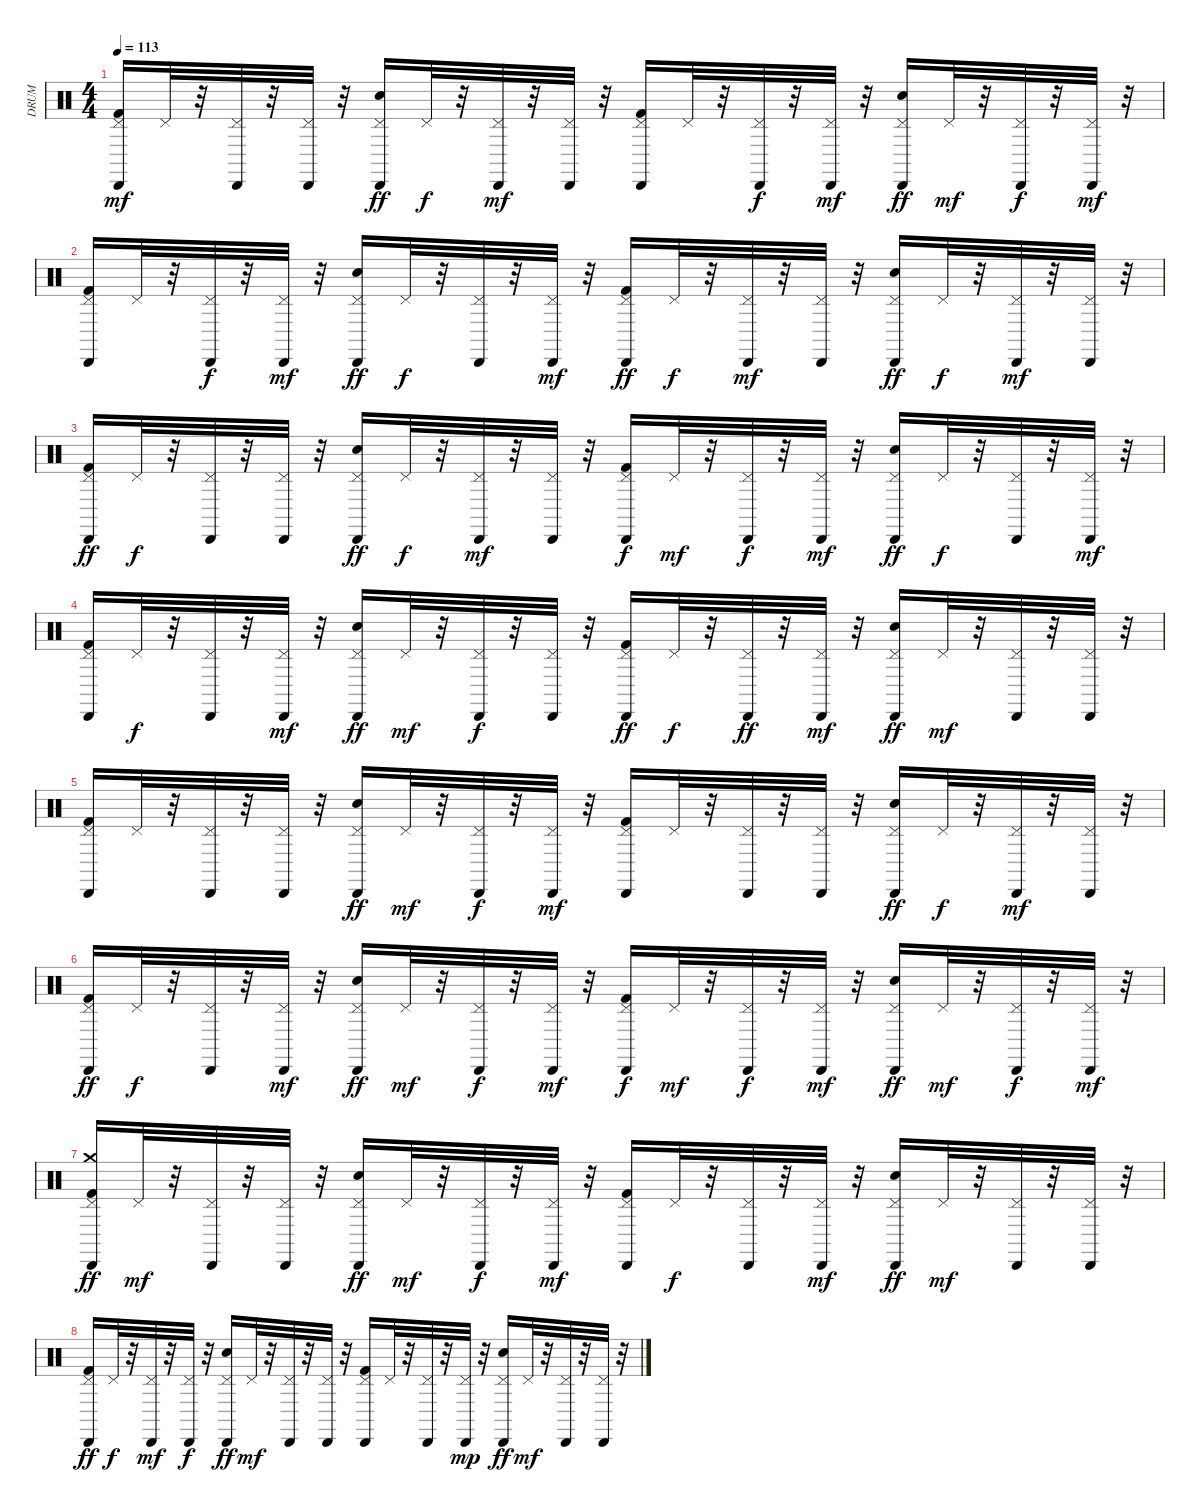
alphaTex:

\track ("DRUM" "DRUM") {instrument percussion}
\staff {score}
\articulation defaults
\ts (4 4)
\tempo 113
\clef neutral
\ks c
("Cabasa (hit)" "Pedal Hi-Hat (hit)" "Kick (hit) 2").16{dy mf} "Pedal Hi-Hat (hit)".32 r.32 ("Cabasa (hit)" "Pedal Hi-Hat (hit)").32 r.32 ("Cabasa (hit)" "Pedal Hi-Hat (hit)").32 r.32 ("Cabasa (hit)" "Pedal Hi-Hat (hit)" "Snare (hit) 2").16{dy ff} "Pedal Hi-Hat (hit)".32{dy f} r.32 ("Cabasa (hit)" "Pedal Hi-Hat (hit)").32{dy mf} r.32 ("Cabasa (hit)" "Pedal Hi-Hat (hit)").32 r.32 ("Cabasa (hit)" "Pedal Hi-Hat (hit)" "Kick (hit) 2").16 "Pedal Hi-Hat (hit)".32 r.32 ("Cabasa (hit)" "Pedal Hi-Hat (hit)").32{dy f} r.32 ("Cabasa (hit)" "Pedal Hi-Hat (hit)").32{dy mf} r.32 ("Cabasa (hit)" "Pedal Hi-Hat (hit)" "Snare (hit) 2").16{dy ff} "Pedal Hi-Hat (hit)".32{dy mf} r.32 ("Cabasa (hit)" "Pedal Hi-Hat (hit)").32{dy f} r.32 ("Cabasa (hit)" "Pedal Hi-Hat (hit)").32{dy mf} r.32 |
("Cabasa (hit)" "Pedal Hi-Hat (hit)" "Kick (hit) 2").16 "Pedal Hi-Hat (hit)".32 r.32 ("Cabasa (hit)" "Pedal Hi-Hat (hit)").32{dy f} r.32 ("Cabasa (hit)" "Pedal Hi-Hat (hit)").32{dy mf} r.32 ("Cabasa (hit)" "Pedal Hi-Hat (hit)" "Snare (hit) 2").16{dy ff} "Pedal Hi-Hat (hit)".32{dy f} r.32 ("Cabasa (hit)" "Pedal Hi-Hat (hit)").32 r.32 ("Cabasa (hit)" "Pedal Hi-Hat (hit)").32{dy mf} r.32 ("Cabasa (hit)" "Pedal Hi-Hat (hit)" "Kick (hit) 2").16{dy ff} "Pedal Hi-Hat (hit)".32{dy f} r.32 ("Cabasa (hit)" "Pedal Hi-Hat (hit)").32{dy mf} r.32 ("Cabasa (hit)" "Pedal Hi-Hat (hit)").32 r.32 ("Cabasa (hit)" "Pedal Hi-Hat (hit)" "Snare (hit) 2").16{dy ff} "Pedal Hi-Hat (hit)".32{dy f} r.32 ("Cabasa (hit)" "Pedal Hi-Hat (hit)").32{dy mf} r.32 ("Cabasa (hit)" "Pedal Hi-Hat (hit)").32 r.32 |
("Cabasa (hit)" "Pedal Hi-Hat (hit)" "Kick (hit) 2").16{dy ff} "Pedal Hi-Hat (hit)".32{dy f} r.32 ("Cabasa (hit)" "Pedal Hi-Hat (hit)").32 r.32 ("Cabasa (hit)" "Pedal Hi-Hat (hit)").32 r.32 ("Cabasa (hit)" "Pedal Hi-Hat (hit)" "Snare (hit) 2").16{dy ff} "Pedal Hi-Hat (hit)".32{dy f} r.32 ("Cabasa (hit)" "Pedal Hi-Hat (hit)").32{dy mf} r.32 ("Cabasa (hit)" "Pedal Hi-Hat (hit)").32 r.32 ("Cabasa (hit)" "Pedal Hi-Hat (hit)" "Kick (hit) 2").16{dy f} "Pedal Hi-Hat (hit)".32{dy mf} r.32 ("Cabasa (hit)" "Pedal Hi-Hat (hit)").32{dy f} r.32 ("Cabasa (hit)" "Pedal Hi-Hat (hit)").32{dy mf} r.32 ("Cabasa (hit)" "Pedal Hi-Hat (hit)" "Snare (hit) 2").16{dy ff} "Pedal Hi-Hat (hit)".32{dy f} r.32 ("Cabasa (hit)" "Pedal Hi-Hat (hit)").32 r.32 ("Cabasa (hit)" "Pedal Hi-Hat (hit)").32{dy mf} r.32 |
("Cabasa (hit)" "Pedal Hi-Hat (hit)" "Kick (hit) 2").16 "Pedal Hi-Hat (hit)".32{dy f} r.32 ("Cabasa (hit)" "Pedal Hi-Hat (hit)").32 r.32 ("Cabasa (hit)" "Pedal Hi-Hat (hit)").32{dy mf} r.32 ("Cabasa (hit)" "Pedal Hi-Hat (hit)" "Snare (hit) 2").16{dy ff} "Pedal Hi-Hat (hit)".32{dy mf} r.32 ("Cabasa (hit)" "Pedal Hi-Hat (hit)").32{dy f} r.32 ("Cabasa (hit)" "Pedal Hi-Hat (hit)").32 r.32 ("Cabasa (hit)" "Pedal Hi-Hat (hit)" "Kick (hit) 2").16{dy ff} "Pedal Hi-Hat (hit)".32{dy f} r.32 ("Cabasa (hit)" "Pedal Hi-Hat (hit)").32{dy ff} r.32 ("Cabasa (hit)" "Pedal Hi-Hat (hit)").32{dy mf} r.32 ("Cabasa (hit)" "Pedal Hi-Hat (hit)" "Snare (hit) 2").16{dy ff} "Pedal Hi-Hat (hit)".32{dy mf} r.32 ("Cabasa (hit)" "Pedal Hi-Hat (hit)").32 r.32 ("Cabasa (hit)" "Pedal Hi-Hat (hit)").32 r.32 |
("Cabasa (hit)" "Pedal Hi-Hat (hit)" "Kick (hit) 2").16 "Pedal Hi-Hat (hit)".32 r.32 ("Cabasa (hit)" "Pedal Hi-Hat (hit)").32 r.32 ("Cabasa (hit)" "Pedal Hi-Hat (hit)").32 r.32 ("Cabasa (hit)" "Pedal Hi-Hat (hit)" "Snare (hit) 2").16{dy ff} "Pedal Hi-Hat (hit)".32{dy mf} r.32 ("Cabasa (hit)" "Pedal Hi-Hat (hit)").32{dy f} r.32 ("Cabasa (hit)" "Pedal Hi-Hat (hit)").32{dy mf} r.32 ("Cabasa (hit)" "Pedal Hi-Hat (hit)" "Kick (hit) 2").16 "Pedal Hi-Hat (hit)".32 r.32 ("Cabasa (hit)" "Pedal Hi-Hat (hit)").32 r.32 ("Cabasa (hit)" "Pedal Hi-Hat (hit)").32 r.32 ("Cabasa (hit)" "Pedal Hi-Hat (hit)" "Snare (hit) 2").16{dy ff} "Pedal Hi-Hat (hit)".32{dy f} r.32 ("Cabasa (hit)" "Pedal Hi-Hat (hit)").32{dy mf} r.32 ("Cabasa (hit)" "Pedal Hi-Hat (hit)").32 r.32 |
("Cabasa (hit)" "Pedal Hi-Hat (hit)" "Kick (hit) 2").16{dy ff} "Pedal Hi-Hat (hit)".32{dy f} r.32 ("Cabasa (hit)" "Pedal Hi-Hat (hit)").32 r.32 ("Cabasa (hit)" "Pedal Hi-Hat (hit)").32{dy mf} r.32 ("Cabasa (hit)" "Pedal Hi-Hat (hit)" "Snare (hit) 2").16{dy ff} "Pedal Hi-Hat (hit)".32{dy mf} r.32 ("Cabasa (hit)" "Pedal Hi-Hat (hit)").32{dy f} r.32 ("Cabasa (hit)" "Pedal Hi-Hat (hit)").32{dy mf} r.32 ("Cabasa (hit)" "Pedal Hi-Hat (hit)" "Kick (hit) 2").16{dy f} "Pedal Hi-Hat (hit)".32{dy mf} r.32 ("Cabasa (hit)" "Pedal Hi-Hat (hit)").32{dy f} r.32 ("Cabasa (hit)" "Pedal Hi-Hat (hit)").32{dy mf} r.32 ("Cabasa (hit)" "Pedal Hi-Hat (hit)" "Snare (hit) 2").16{dy ff} "Pedal Hi-Hat (hit)".32{dy mf} r.32 ("Cabasa (hit)" "Pedal Hi-Hat (hit)").32{dy f} r.32 ("Cabasa (hit)" "Pedal Hi-Hat (hit)").32{dy mf} r.32 |
("Cabasa (hit)" "Crash medium (hit)" "Pedal Hi-Hat (hit)" "Kick (hit) 2").16{dy ff} "Pedal Hi-Hat (hit)".32{dy mf} r.32 ("Cabasa (hit)" "Pedal Hi-Hat (hit)").32 r.32 ("Cabasa (hit)" "Pedal Hi-Hat (hit)").32 r.32 ("Cabasa (hit)" "Pedal Hi-Hat (hit)" "Snare (hit) 2").16{dy ff} "Pedal Hi-Hat (hit)".32{dy mf} r.32 ("Cabasa (hit)" "Pedal Hi-Hat (hit)").32{dy f} r.32 ("Cabasa (hit)" "Pedal Hi-Hat (hit)").32{dy mf} r.32 ("Cabasa (hit)" "Pedal Hi-Hat (hit)" "Kick (hit) 2").16 "Pedal Hi-Hat (hit)".32{dy f} r.32 ("Cabasa (hit)" "Pedal Hi-Hat (hit)").32 r.32 ("Cabasa (hit)" "Pedal Hi-Hat (hit)").32{dy mf} r.32 ("Cabasa (hit)" "Pedal Hi-Hat (hit)" "Snare (hit) 2").16{dy ff} "Pedal Hi-Hat (hit)".32{dy mf} r.32 ("Cabasa (hit)" "Pedal Hi-Hat (hit)").32 r.32 ("Cabasa (hit)" "Pedal Hi-Hat (hit)").32 r.32 |
("Cabasa (hit)" "Pedal Hi-Hat (hit)" "Kick (hit) 2").16{dy ff} "Pedal Hi-Hat (hit)".32{dy f} r.32 ("Cabasa (hit)" "Pedal Hi-Hat (hit)").32{dy mf} r.32 ("Cabasa (hit)" "Pedal Hi-Hat (hit)").32{dy f} r.32 ("Cabasa (hit)" "Pedal Hi-Hat (hit)" "Snare (hit) 2").16{dy ff} "Pedal Hi-Hat (hit)".32{dy mf} r.32 ("Cabasa (hit)" "Pedal Hi-Hat (hit)").32 r.32 ("Cabasa (hit)" "Pedal Hi-Hat (hit)").32 r.32 ("Cabasa (hit)" "Pedal Hi-Hat (hit)" "Kick (hit) 2").16 "Pedal Hi-Hat (hit)".32 r.32 ("Cabasa (hit)" "Pedal Hi-Hat (hit)").32 r.32 ("Cabasa (hit)" "Pedal Hi-Hat (hit)").32{dy mp} r.32 ("Cabasa (hit)" "Pedal Hi-Hat (hit)" "Snare (hit) 2").16{dy ff} "Pedal Hi-Hat (hit)".32{dy mf} r.32 ("Cabasa (hit)" "Pedal Hi-Hat (hit)").32 r.32 ("Cabasa (hit)" "Pedal Hi-Hat (hit)").32 r.32
